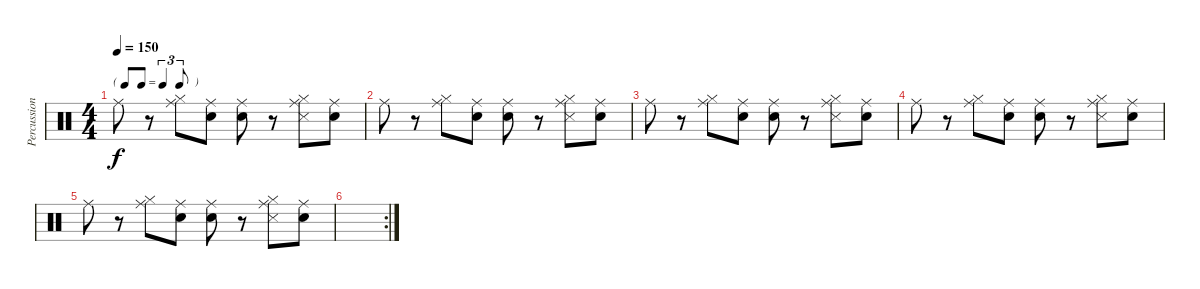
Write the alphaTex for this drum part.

\track ("Percussions" "Percussion") {instrument percussion}
\staff {score}
\articulation defaults
\ts (4 4)
\tf triplet8th
\tempo 150
\clef neutral
\ks c "Ride (middle)".8{dy f}
r.8 ("Hi-Hat (closed)" "Ride (middle)").8 ("Snare (hit)" "Ride (middle)").8 ("Snare (hit)" "Ride (middle)").8 r.8 ("Hi-Hat (closed)" "Snare (side stick) 3" "Ride (middle)").8 ("Snare (hit)" "Ride (middle)").8 |
"Ride (middle)".8 r.8 ("Hi-Hat (closed)" "Ride (middle)").8 ("Snare (hit)" "Ride (middle)").8 ("Snare (hit)" "Ride (middle)").8 r.8 ("Hi-Hat (closed)" "Snare (side stick) 3" "Ride (middle)").8 ("Snare (hit)" "Ride (middle)").8 |
"Ride (middle)".8 r.8 ("Hi-Hat (closed)" "Ride (middle)").8 ("Snare (hit)" "Ride (middle)").8 ("Snare (hit)" "Ride (middle)").8 r.8 ("Hi-Hat (closed)" "Snare (side stick) 3" "Ride (middle)").8 ("Snare (hit)" "Ride (middle)").8 |
"Ride (middle)".8 r.8 ("Hi-Hat (closed)" "Ride (middle)").8 ("Snare (hit)" "Ride (middle)").8 ("Snare (hit)" "Ride (middle)").8 r.8 ("Hi-Hat (closed)" "Snare (side stick) 3" "Ride (middle)").8 ("Snare (hit)" "Ride (middle)").8 |
"Ride (middle)".8 r.8 ("Hi-Hat (closed)" "Ride (middle)").8 ("Snare (hit)" "Ride (middle)").8 ("Snare (hit)" "Ride (middle)").8 r.8 ("Hi-Hat (closed)" "Snare (side stick) 3" "Ride (middle)").8 ("Snare (hit)" "Ride (middle)").8 |
\rc 2
